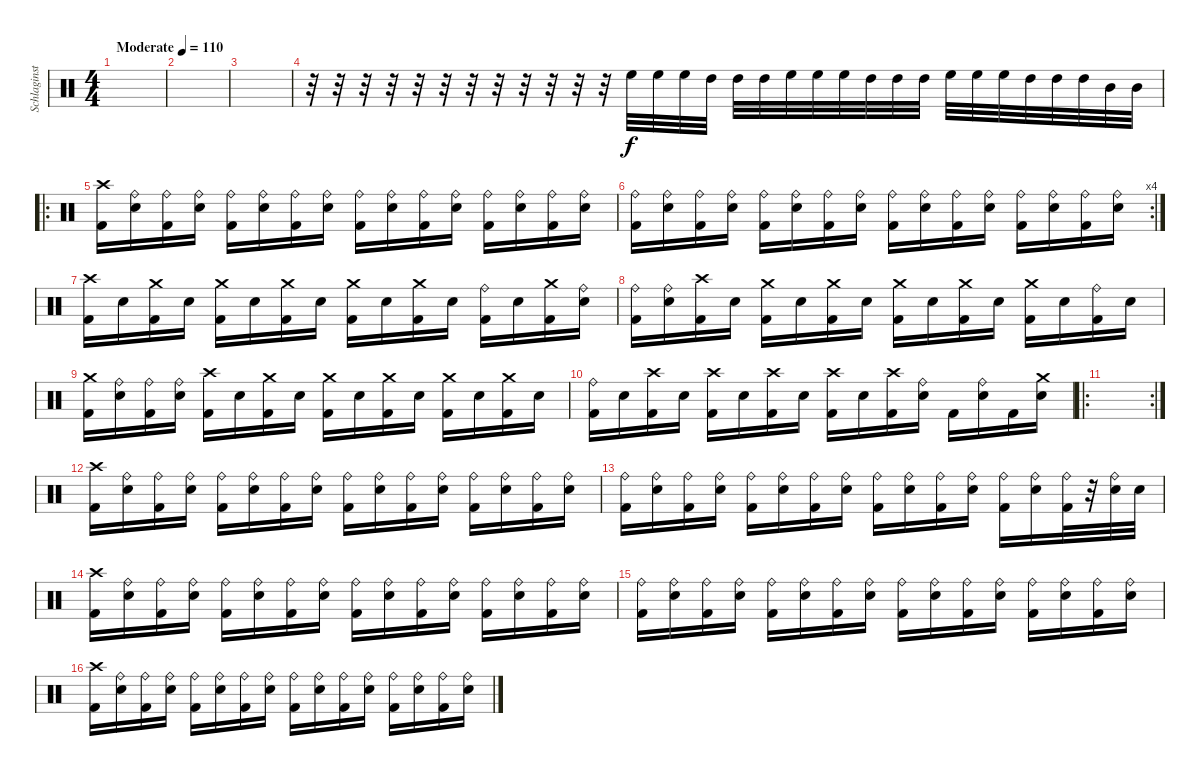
\track ("Schlaginstrumente - Auswahl" "Schlaginst") {instrument percussion}
\staff {score}
\articulation defaults
\ts (4 4)
\tempo (110 "Moderate")
\clef neutral
\ks c
|
|
|
r.32 r.32 r.32 r.32 r.32 r.32 r.32 r.32 r.32 r.32 r.32 r.32 "High Floor Tom (hit)".32 "High Floor Tom (hit)".32 "High Floor Tom (hit)".32 "High Tom (hit)".32 "High Tom (hit)".32 "High Tom (hit)".32 "High Floor Tom (hit)".32 "High Floor Tom (hit)".32 "High Floor Tom (hit)".32 "High Tom (hit)".32 "High Tom (hit)".32 "High Tom (hit)".32 "High Floor Tom (hit)".32 "High Floor Tom (hit)".32 "High Floor Tom (hit)".32 "High Tom (hit)".32 "High Tom (hit)".32 "High Tom (hit)".32 "Mid Tom (hit)".32 "Mid Tom (hit)".32 |
\ro
("Crash high (hit)" "Kick (hit) 2").16 ("Ride (bell)" "Snare (hit) 2").16 ("Ride (bell)" "Kick (hit) 2").16 ("Ride (bell)" "Snare (hit) 2").16 ("Ride (bell)" "Kick (hit) 2").16 ("Ride (bell)" "Snare (hit) 2").16 ("Ride (bell)" "Kick (hit) 2").16 ("Ride (bell)" "Snare (hit) 2").16 ("Ride (bell)" "Kick (hit) 2").16 ("Ride (bell)" "Snare (hit) 2").16 ("Ride (bell)" "Kick (hit) 2").16 ("Ride (bell)" "Snare (hit) 2").16 ("Ride (bell)" "Kick (hit) 2").16 ("Ride (bell)" "Snare (hit) 2").16 ("Ride (bell)" "Kick (hit) 2").16 ("Ride (bell)" "Snare (hit) 2").16 |
\rc 4
("Ride (bell)" "Kick (hit) 2").16 ("Ride (bell)" "Snare (hit) 2").16 ("Ride (bell)" "Kick (hit) 2").16 ("Ride (bell)" "Snare (hit) 2").16 ("Ride (bell)" "Kick (hit) 2").16 ("Ride (bell)" "Snare (hit) 2").16 ("Ride (bell)" "Kick (hit) 2").16 ("Ride (bell)" "Snare (hit) 2").16 ("Ride (bell)" "Kick (hit) 2").16 ("Ride (bell)" "Snare (hit) 2").16 ("Ride (bell)" "Kick (hit) 2").16 ("Ride (bell)" "Snare (hit) 2").16 ("Ride (bell)" "Kick (hit) 2").16 ("Ride (bell)" "Snare (hit) 2").16 ("Ride (bell)" "Kick (hit) 2").16 ("Ride (bell)" "Snare (hit) 2").16 |
("Crash high (hit)" "Kick (hit) 2").16 "Snare (hit) 2".16 ("Crash medium (hit)" "Kick (hit) 2").16 "Snare (hit) 2".16 ("Crash medium (hit)" "Kick (hit) 2").16 "Snare (hit) 2".16 ("Crash medium (hit)" "Kick (hit) 2").16 "Snare (hit) 2".16 ("Crash medium (hit)" "Kick (hit) 2").16 "Snare (hit) 2".16 ("Crash medium (hit)" "Kick (hit) 2").16 "Snare (hit) 2".16 ("Ride (bell)" "Kick (hit) 2").16 "Snare (hit) 2".16 ("Crash medium (hit)" "Kick (hit) 2").16 ("Ride (bell)" "Snare (hit) 2").16 |
("Ride (bell)" "Kick (hit) 2").16 ("Ride (bell)" "Snare (hit) 2").16 ("Crash high (hit)" "Kick (hit) 2").16 "Snare (hit) 2".16 ("Crash medium (hit)" "Kick (hit) 2").16 "Snare (hit) 2".16 ("Crash medium (hit)" "Kick (hit) 2").16 "Snare (hit) 2".16 ("Crash medium (hit)" "Kick (hit) 2").16 "Snare (hit) 2".16 ("Crash medium (hit)" "Kick (hit) 2").16 "Snare (hit) 2".16 ("Crash medium (hit)" "Kick (hit) 2").16 "Snare (hit) 2".16 ("Ride (bell)" "Kick (hit) 2").16 "Snare (hit) 2".16 |
("Crash medium (hit)" "Kick (hit) 2").16 ("Ride (bell)" "Snare (hit) 2").16 ("Ride (bell)" "Kick (hit) 2").16 ("Ride (bell)" "Snare (hit) 2").16 ("Crash high (hit)" "Kick (hit) 2").16 "Snare (hit) 2".16 ("Crash medium (hit)" "Kick (hit) 2").16 "Snare (hit) 2".16 ("Crash medium (hit)" "Kick (hit) 2").16 "Snare (hit) 2".16 ("Crash medium (hit)" "Kick (hit) 2").16 "Snare (hit) 2".16 ("Crash medium (hit)" "Kick (hit) 2").16 "Snare (hit) 2".16 ("Crash medium (hit)" "Kick (hit) 2").16 "Snare (hit) 2".16 |
("Ride (bell)" "Kick (hit) 2").16 "Snare (hit) 2".16 ("Crash high (hit)" "Kick (hit) 2").16 "Snare (hit) 2".16 ("Crash high (hit)" "Kick (hit) 2").16 "Snare (hit) 2".16 ("Crash high (hit)" "Kick (hit) 2").16 "Snare (hit) 2".16 ("Crash high (hit)" "Kick (hit) 2").16 "Snare (hit) 2".16 ("Crash high (hit)" "Kick (hit) 2").16 ("Ride (bell)" "Snare (hit) 2").16 "Kick (hit) 2".16 ("Ride (bell)" "Snare (hit) 2").16 "Kick (hit) 2".16 ("Crash medium (hit)" "Snare (hit) 2").16 |
\ro
\rc 2
|
("Crash high (hit)" "Kick (hit) 2").16 ("Ride (bell)" "Snare (hit) 2").16 ("Ride (bell)" "Kick (hit) 2").16 ("Ride (bell)" "Snare (hit) 2").16 ("Ride (bell)" "Kick (hit) 2").16 ("Ride (bell)" "Snare (hit) 2").16 ("Ride (bell)" "Kick (hit) 2").16 ("Ride (bell)" "Snare (hit) 2").16 ("Ride (bell)" "Kick (hit) 2").16 ("Ride (bell)" "Snare (hit) 2").16 ("Ride (bell)" "Kick (hit) 2").16 ("Ride (bell)" "Snare (hit) 2").16 ("Ride (bell)" "Kick (hit) 2").16 ("Ride (bell)" "Snare (hit) 2").16 ("Ride (bell)" "Kick (hit) 2").16 ("Ride (bell)" "Snare (hit) 2").16 |
("Ride (bell)" "Kick (hit) 2").16 ("Ride (bell)" "Snare (hit) 2").16 ("Ride (bell)" "Kick (hit) 2").16 ("Ride (bell)" "Snare (hit) 2").16 ("Ride (bell)" "Kick (hit) 2").16 ("Ride (bell)" "Snare (hit) 2").16 ("Ride (bell)" "Kick (hit) 2").16 ("Ride (bell)" "Snare (hit) 2").16 ("Ride (bell)" "Kick (hit) 2").16 ("Ride (bell)" "Snare (hit) 2").16 ("Ride (bell)" "Kick (hit) 2").16 ("Ride (bell)" "Snare (hit) 2").16 ("Ride (bell)" "Kick (hit) 2").16 ("Ride (bell)" "Snare (hit) 2").16 ("Ride (bell)" "Kick (hit) 2").32 r.32 ("Ride (bell)" "Snare (hit) 2").32 "Snare (hit) 2".32 |
("Crash high (hit)" "Kick (hit) 2").16 ("Ride (bell)" "Snare (hit) 2").16 ("Ride (bell)" "Kick (hit) 2").16 ("Ride (bell)" "Snare (hit) 2").16 ("Ride (bell)" "Kick (hit) 2").16 ("Ride (bell)" "Snare (hit) 2").16 ("Ride (bell)" "Kick (hit) 2").16 ("Ride (bell)" "Snare (hit) 2").16 ("Ride (bell)" "Kick (hit) 2").16 ("Ride (bell)" "Snare (hit) 2").16 ("Ride (bell)" "Kick (hit) 2").16 ("Ride (bell)" "Snare (hit) 2").16 ("Ride (bell)" "Kick (hit) 2").16 ("Ride (bell)" "Snare (hit) 2").16 ("Ride (bell)" "Kick (hit) 2").16 ("Ride (bell)" "Snare (hit) 2").16 |
("Ride (bell)" "Kick (hit) 2").16 ("Ride (bell)" "Snare (hit) 2").16 ("Ride (bell)" "Kick (hit) 2").16 ("Ride (bell)" "Snare (hit) 2").16 ("Ride (bell)" "Kick (hit) 2").16 ("Ride (bell)" "Snare (hit) 2").16 ("Ride (bell)" "Kick (hit) 2").16 ("Ride (bell)" "Snare (hit) 2").16 ("Ride (bell)" "Kick (hit) 2").16 ("Ride (bell)" "Snare (hit) 2").16 ("Ride (bell)" "Kick (hit) 2").16 ("Ride (bell)" "Snare (hit) 2").16 ("Ride (bell)" "Kick (hit) 2").16 ("Ride (bell)" "Snare (hit) 2").16 ("Ride (bell)" "Kick (hit) 2").16 ("Ride (bell)" "Snare (hit) 2").16 |
("Crash high (hit)" "Kick (hit) 2").16 ("Ride (bell)" "Snare (hit) 2").16 ("Ride (bell)" "Kick (hit) 2").16 ("Ride (bell)" "Snare (hit) 2").16 ("Ride (bell)" "Kick (hit) 2").16 ("Ride (bell)" "Snare (hit) 2").16 ("Ride (bell)" "Kick (hit) 2").16 ("Ride (bell)" "Snare (hit) 2").16 ("Ride (bell)" "Kick (hit) 2").16 ("Ride (bell)" "Snare (hit) 2").16 ("Ride (bell)" "Kick (hit) 2").16 ("Ride (bell)" "Snare (hit) 2").16 ("Ride (bell)" "Kick (hit) 2").16 ("Ride (bell)" "Snare (hit) 2").16 ("Ride (bell)" "Kick (hit) 2").16 ("Ride (bell)" "Snare (hit) 2").16
